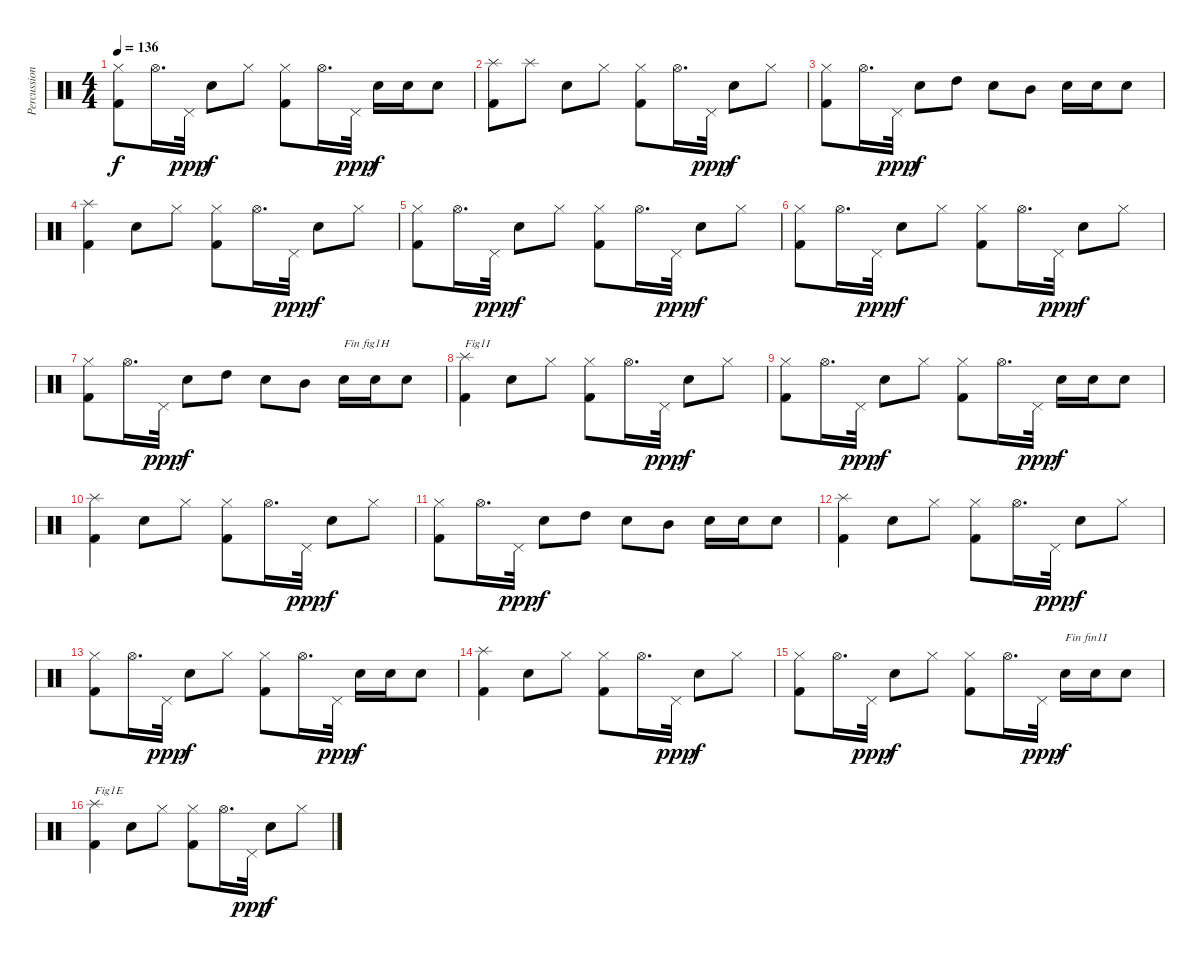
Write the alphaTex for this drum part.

\track ("Percussions" "Percussion") {instrument percussion}
\staff {score}
\articulation defaults
\ts (4 4)
\tempo 136
\clef neutral
\ks c
("Kick (hit) 2" "Hi-Hat (closed)").8{dy f} "Hi-Hat (open)".16{d} "Pedal Hi-Hat (hit)".32{dy ppp} "Electric Snare (hit)".8{dy f} "Hi-Hat (closed)".8 ("Kick (hit) 2" "Hi-Hat (closed)").8 "Hi-Hat (open)".16{d} "Pedal Hi-Hat (hit)".32{dy ppp} "Electric Snare (hit)".16{dy f} "Electric Snare (hit)".16 "Electric Snare (hit)".8 |
("Kick (hit) 2" "Splash (hit)").8 "Splash (hit)".8 "Electric Snare (hit)".8 "Hi-Hat (closed)".8 ("Kick (hit) 2" "Hi-Hat (closed)").8 "Hi-Hat (open)".16{d} "Pedal Hi-Hat (hit)".32{dy ppp} "Electric Snare (hit)".8{dy f} "Hi-Hat (closed)".8 |
("Kick (hit) 2" "Hi-Hat (closed)").8 "Hi-Hat (open)".16{d} "Pedal Hi-Hat (hit)".32{dy ppp} "Electric Snare (hit)".8{dy f} "High Tom (hit)".8 "Electric Snare (hit)".8 "Mid Tom (hit)".8 "Electric Snare (hit)".16 "Electric Snare (hit)".16 "Electric Snare (hit)".8 |
("Kick (hit) 2" "Splash (hit)").4 "Electric Snare (hit)".8 "Hi-Hat (closed)".8 ("Kick (hit) 2" "Hi-Hat (closed)").8 "Hi-Hat (open)".16{d} "Pedal Hi-Hat (hit)".32{dy ppp} "Electric Snare (hit)".8{dy f} "Hi-Hat (closed)".8 |
("Kick (hit) 2" "Hi-Hat (closed)").8 "Hi-Hat (open)".16{d} "Pedal Hi-Hat (hit)".32{dy ppp} "Electric Snare (hit)".8{dy f} "Hi-Hat (closed)".8 ("Kick (hit) 2" "Hi-Hat (closed)").8 "Hi-Hat (open)".16{d} "Pedal Hi-Hat (hit)".32{dy ppp} "Electric Snare (hit)".8{dy f} "Hi-Hat (closed)".8 |
("Kick (hit) 2" "Hi-Hat (closed)").8 "Hi-Hat (open)".16{d} "Pedal Hi-Hat (hit)".32{dy ppp} "Electric Snare (hit)".8{dy f} "Hi-Hat (closed)".8 ("Kick (hit) 2" "Hi-Hat (closed)").8 "Hi-Hat (open)".16{d} "Pedal Hi-Hat (hit)".32{dy ppp} "Electric Snare (hit)".8{dy f} "Hi-Hat (closed)".8 |
("Kick (hit) 2" "Hi-Hat (closed)").8 "Hi-Hat (open)".16{d} "Pedal Hi-Hat (hit)".32{dy ppp} "Electric Snare (hit)".8{dy f} "High Tom (hit)".8 "Electric Snare (hit)".8 "Mid Tom (hit)".8 "Electric Snare (hit)".16{txt "Fin fig1H"} "Electric Snare (hit)".16 "Electric Snare (hit)".8 |
("Kick (hit) 2" "Splash (hit)").4{txt "Fig1I"} "Electric Snare (hit)".8 "Hi-Hat (closed)".8 ("Kick (hit) 2" "Hi-Hat (closed)").8 "Hi-Hat (open)".16{d} "Pedal Hi-Hat (hit)".32{dy ppp} "Electric Snare (hit)".8{dy f} "Hi-Hat (closed)".8 |
("Kick (hit) 2" "Hi-Hat (closed)").8 "Hi-Hat (open)".16{d} "Pedal Hi-Hat (hit)".32{dy ppp} "Electric Snare (hit)".8{dy f} "Hi-Hat (closed)".8 ("Kick (hit) 2" "Hi-Hat (closed)").8 "Hi-Hat (open)".16{d} "Pedal Hi-Hat (hit)".32{dy ppp} "Electric Snare (hit)".16{dy f} "Electric Snare (hit)".16 "Electric Snare (hit)".8 |
("Kick (hit) 2" "Splash (hit)").4 "Electric Snare (hit)".8 "Hi-Hat (closed)".8 ("Kick (hit) 2" "Hi-Hat (closed)").8 "Hi-Hat (open)".16{d} "Pedal Hi-Hat (hit)".32{dy ppp} "Electric Snare (hit)".8{dy f} "Hi-Hat (closed)".8 |
("Kick (hit) 2" "Hi-Hat (closed)").8 "Hi-Hat (open)".16{d} "Pedal Hi-Hat (hit)".32{dy ppp} "Electric Snare (hit)".8{dy f} "High Tom (hit)".8 "Electric Snare (hit)".8 "Mid Tom (hit)".8 "Electric Snare (hit)".16 "Electric Snare (hit)".16 "Electric Snare (hit)".8 |
("Kick (hit) 2" "Splash (hit)").4 "Electric Snare (hit)".8 "Hi-Hat (closed)".8 ("Kick (hit) 2" "Hi-Hat (closed)").8 "Hi-Hat (open)".16{d} "Pedal Hi-Hat (hit)".32{dy ppp} "Electric Snare (hit)".8{dy f} "Hi-Hat (closed)".8 |
("Kick (hit) 2" "Hi-Hat (closed)").8 "Hi-Hat (open)".16{d} "Pedal Hi-Hat (hit)".32{dy ppp} "Electric Snare (hit)".8{dy f} "Hi-Hat (closed)".8 ("Kick (hit) 2" "Hi-Hat (closed)").8 "Hi-Hat (open)".16{d} "Pedal Hi-Hat (hit)".32{dy ppp} "Electric Snare (hit)".16{dy f} "Electric Snare (hit)".16 "Electric Snare (hit)".8 |
("Kick (hit) 2" "Splash (hit)").4 "Electric Snare (hit)".8 "Hi-Hat (closed)".8 ("Kick (hit) 2" "Hi-Hat (closed)").8 "Hi-Hat (open)".16{d} "Pedal Hi-Hat (hit)".32{dy ppp} "Electric Snare (hit)".8{dy f} "Hi-Hat (closed)".8 |
("Kick (hit) 2" "Hi-Hat (closed)").8 "Hi-Hat (open)".16{d} "Pedal Hi-Hat (hit)".32{dy ppp} "Electric Snare (hit)".8{dy f} "Hi-Hat (closed)".8 ("Kick (hit) 2" "Hi-Hat (closed)").8 "Hi-Hat (open)".16{d} "Pedal Hi-Hat (hit)".32{dy ppp} "Electric Snare (hit)".16{txt "Fin fin1I" dy f} "Electric Snare (hit)".16 "Electric Snare (hit)".8 |
("Kick (hit) 2" "Splash (hit)").4{txt "Fig1E"} "Electric Snare (hit)".8 "Hi-Hat (closed)".8 ("Kick (hit) 2" "Hi-Hat (closed)").8 "Hi-Hat (open)".16{d} "Pedal Hi-Hat (hit)".32{dy ppp} "Electric Snare (hit)".8{dy f} "Hi-Hat (closed)".8
